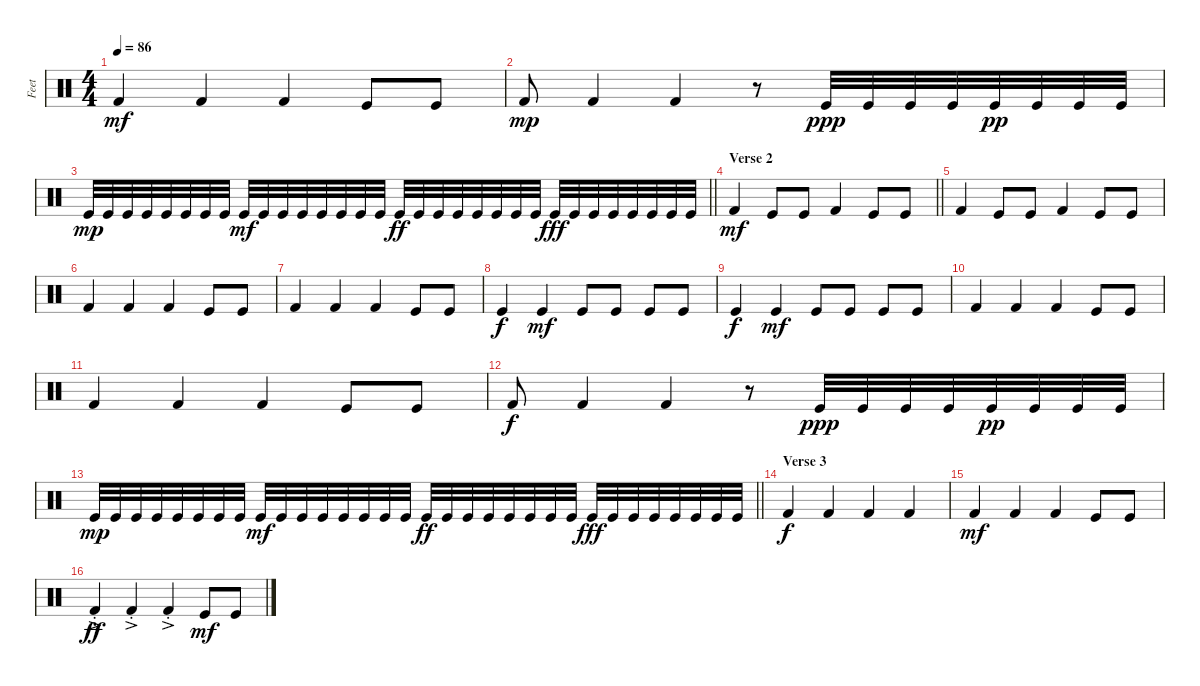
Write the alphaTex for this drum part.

\track ("Feet" "Feet") {instrument percussion}
\staff {score}
\articulation defaults
\ts (4 4)
\tempo 86
\clef neutral
\ks aminor "Kick (hit) 2".4{dy mf} "Kick (hit) 2".4 "Kick (hit) 2".4 "Kick (hit)".8 "Kick (hit)".8
|
"Kick (hit) 2".8{dy mp} "Kick (hit) 2".4 "Kick (hit) 2".4 r.8 "Kick (hit)".32{dy ppp} "Kick (hit)".32 "Kick (hit)".32 "Kick (hit)".32 "Kick (hit)".32{dy pp} "Kick (hit)".32 "Kick (hit)".32 "Kick (hit)".32 |
\barLineRight lightlight "Kick (hit)".32{dy mp} "Kick (hit)".32 "Kick (hit)".32 "Kick (hit)".32 "Kick (hit)".32 "Kick (hit)".32 "Kick (hit)".32 "Kick (hit)".32 "Kick (hit)".32{dy mf} "Kick (hit)".32 "Kick (hit)".32 "Kick (hit)".32 "Kick (hit)".32 "Kick (hit)".32 "Kick (hit)".32 "Kick (hit)".32 "Kick (hit)".32{dy ff} "Kick (hit)".32 "Kick (hit)".32 "Kick (hit)".32 "Kick (hit)".32 "Kick (hit)".32 "Kick (hit)".32 "Kick (hit)".32 "Kick (hit)".32{dy fff} "Kick (hit)".32 "Kick (hit)".32 "Kick (hit)".32 "Kick (hit)".32 "Kick (hit)".32 "Kick (hit)".32 "Kick (hit)".32
|
\section ("" "Verse 2")
\barLineRight lightlight "Kick (hit) 2".4{dy mf} "Kick (hit)".8 "Kick (hit)".8 "Kick (hit) 2".4 "Kick (hit)".8 "Kick (hit)".8
|
"Kick (hit) 2".4 "Kick (hit)".8 "Kick (hit)".8 "Kick (hit) 2".4 "Kick (hit)".8 "Kick (hit)".8 |
"Kick (hit) 2".4 "Kick (hit) 2".4 "Kick (hit) 2".4 "Kick (hit)".8 "Kick (hit)".8 |
"Kick (hit) 2".4 "Kick (hit) 2".4 "Kick (hit) 2".4 "Kick (hit)".8 "Kick (hit)".8 |
"Kick (hit)".4{dy f} "Kick (hit)".4{dy mf} "Kick (hit)".8 "Kick (hit)".8 "Kick (hit)".8 "Kick (hit)".8 |
"Kick (hit)".4{dy f} "Kick (hit)".4{dy mf} "Kick (hit)".8 "Kick (hit)".8 "Kick (hit)".8 "Kick (hit)".8 |
"Kick (hit) 2".4 "Kick (hit) 2".4 "Kick (hit) 2".4 "Kick (hit)".8 "Kick (hit)".8 |
"Kick (hit) 2".4 "Kick (hit) 2".4 "Kick (hit) 2".4 "Kick (hit)".8 "Kick (hit)".8 |
"Kick (hit) 2".8{dy f} "Kick (hit) 2".4 "Kick (hit) 2".4 r.8 "Kick (hit)".32{dy ppp} "Kick (hit)".32 "Kick (hit)".32 "Kick (hit)".32 "Kick (hit)".32{dy pp} "Kick (hit)".32 "Kick (hit)".32 "Kick (hit)".32 |
\barLineRight lightlight "Kick (hit)".32{dy mp} "Kick (hit)".32 "Kick (hit)".32 "Kick (hit)".32 "Kick (hit)".32 "Kick (hit)".32 "Kick (hit)".32 "Kick (hit)".32 "Kick (hit)".32{dy mf} "Kick (hit)".32 "Kick (hit)".32 "Kick (hit)".32 "Kick (hit)".32 "Kick (hit)".32 "Kick (hit)".32 "Kick (hit)".32 "Kick (hit)".32{dy ff} "Kick (hit)".32 "Kick (hit)".32 "Kick (hit)".32 "Kick (hit)".32 "Kick (hit)".32 "Kick (hit)".32 "Kick (hit)".32 "Kick (hit)".32{dy fff} "Kick (hit)".32 "Kick (hit)".32 "Kick (hit)".32 "Kick (hit)".32 "Kick (hit)".32 "Kick (hit)".32 "Kick (hit)".32
|
\section ("" "Verse 3")
"Kick (hit) 2".4{dy f} "Kick (hit) 2".4 "Kick (hit) 2".4 "Kick (hit) 2".4 |
"Kick (hit) 2".4{dy mf} "Kick (hit) 2".4 "Kick (hit) 2".4 "Kick (hit)".8 "Kick (hit)".8 |
"Kick (hit) 2"{ac st}.4{dy ff} "Kick (hit) 2"{ac st}.4 "Kick (hit) 2"{ac st}.4 "Kick (hit)".8{dy mf} "Kick (hit)".8
